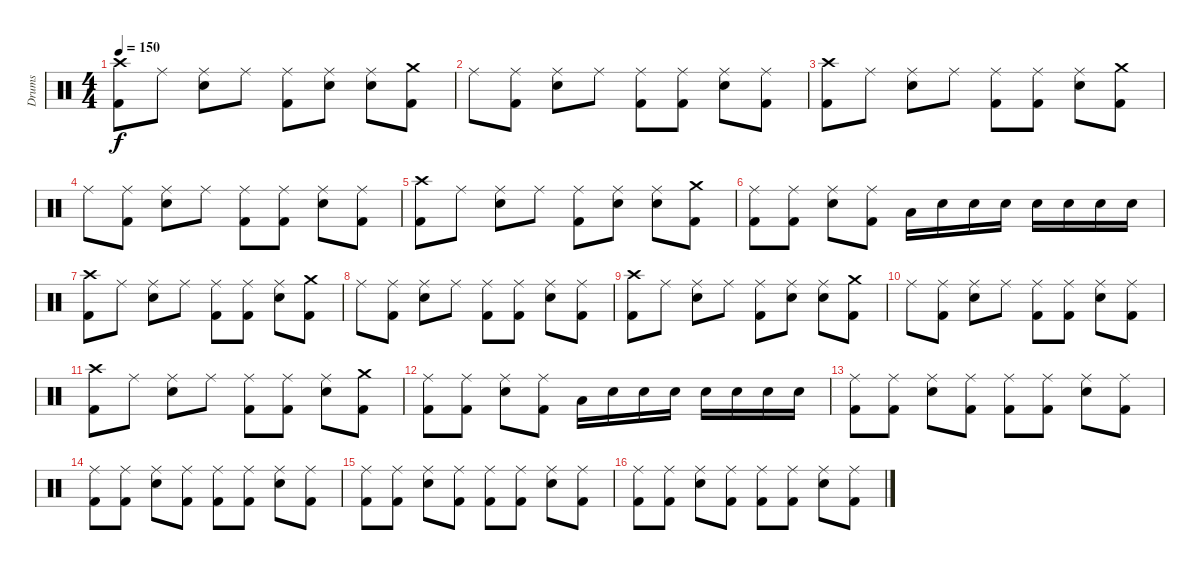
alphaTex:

\track ("Drums" "Drums") {instrument percussion}
\staff {score}
\articulation defaults
\ts (4 4)
\tempo 150
\clef neutral
\ks c
("Crash high (hit)" "Kick (hit) 2").8{dy f} "Ride (middle)".8 ("Ride (middle)" "Electric Snare (hit)").8 "Ride (middle)".8 ("Ride (middle)" "Kick (hit) 2").8 ("Ride (middle)" "Electric Snare (hit)").8 ("Ride (middle)" "Electric Snare (hit)").8 ("Crash medium (hit)" "Kick (hit) 2").8 |
"Ride (middle)".8 ("Ride (middle)" "Kick (hit) 2").8 ("Ride (middle)" "Electric Snare (hit)").8 "Ride (middle)".8 ("Ride (middle)" "Kick (hit) 2").8 ("Ride (middle)" "Kick (hit) 2").8 ("Ride (middle)" "Electric Snare (hit)").8 ("Ride (middle)" "Kick (hit) 2").8 |
("Crash high (hit)" "Kick (hit) 2").8 "Ride (middle)".8 ("Ride (middle)" "Electric Snare (hit)").8 "Ride (middle)".8 ("Ride (middle)" "Kick (hit) 2").8 ("Ride (middle)" "Kick (hit) 2").8 ("Ride (middle)" "Electric Snare (hit)").8 ("Crash medium (hit)" "Kick (hit) 2").8 |
"Ride (middle)".8 ("Ride (middle)" "Kick (hit) 2").8 ("Ride (middle)" "Electric Snare (hit)").8 "Ride (middle)".8 ("Ride (middle)" "Kick (hit) 2").8 ("Ride (middle)" "Kick (hit) 2").8 ("Ride (middle)" "Electric Snare (hit)").8 ("Ride (middle)" "Kick (hit) 2").8 |
("Crash high (hit)" "Kick (hit) 2").8 "Ride (middle)".8 ("Ride (middle)" "Electric Snare (hit)").8 "Ride (middle)".8 ("Ride (middle)" "Kick (hit) 2").8 ("Ride (middle)" "Electric Snare (hit)").8 ("Ride (middle)" "Electric Snare (hit)").8 ("Crash medium (hit)" "Kick (hit) 2").8 |
("Ride (middle)" "Kick (hit) 2").8 ("Ride (middle)" "Kick (hit) 2").8 ("Ride (middle)" "Electric Snare (hit)").8 ("Ride (middle)" "Kick (hit) 2").8 "Low Floor Tom (hit)".16 "Electric Snare (hit)".16 "Electric Snare (hit)".16 "Electric Snare (hit)".16 "Electric Snare (hit)".16 "Electric Snare (hit)".16 "Electric Snare (hit)".16 "Electric Snare (hit)".16 |
("Crash high (hit)" "Kick (hit) 2").8 "Ride (middle)".8 ("Ride (middle)" "Electric Snare (hit)").8 "Ride (middle)".8 ("Ride (middle)" "Kick (hit) 2").8 ("Ride (middle)" "Kick (hit) 2").8 ("Ride (middle)" "Electric Snare (hit)").8 ("Crash medium (hit)" "Kick (hit) 2").8 |
"Ride (middle)".8 ("Ride (middle)" "Kick (hit) 2").8 ("Ride (middle)" "Electric Snare (hit)").8 "Ride (middle)".8 ("Ride (middle)" "Kick (hit) 2").8 ("Ride (middle)" "Kick (hit) 2").8 ("Ride (middle)" "Electric Snare (hit)").8 ("Ride (middle)" "Kick (hit) 2").8 |
("Crash high (hit)" "Kick (hit) 2").8 "Ride (middle)".8 ("Ride (middle)" "Electric Snare (hit)").8 "Ride (middle)".8 ("Ride (middle)" "Kick (hit) 2").8 ("Ride (middle)" "Electric Snare (hit)").8 ("Ride (middle)" "Electric Snare (hit)").8 ("Crash medium (hit)" "Kick (hit) 2").8 |
"Ride (middle)".8 ("Ride (middle)" "Kick (hit) 2").8 ("Ride (middle)" "Electric Snare (hit)").8 "Ride (middle)".8 ("Ride (middle)" "Kick (hit) 2").8 ("Ride (middle)" "Kick (hit) 2").8 ("Ride (middle)" "Electric Snare (hit)").8 ("Ride (middle)" "Kick (hit) 2").8 |
("Crash high (hit)" "Kick (hit) 2").8 "Ride (middle)".8 ("Ride (middle)" "Electric Snare (hit)").8 "Ride (middle)".8 ("Ride (middle)" "Kick (hit) 2").8 ("Ride (middle)" "Kick (hit) 2").8 ("Ride (middle)" "Electric Snare (hit)").8 ("Crash medium (hit)" "Kick (hit) 2").8 |
("Ride (middle)" "Kick (hit) 2").8 ("Ride (middle)" "Kick (hit) 2").8 ("Ride (middle)" "Electric Snare (hit)").8 ("Ride (middle)" "Kick (hit) 2").8 "Low Floor Tom (hit)".16 "Electric Snare (hit)".16 "Electric Snare (hit)".16 "Electric Snare (hit)".16 "Electric Snare (hit)".16 "Electric Snare (hit)".16 "Electric Snare (hit)".16 "Electric Snare (hit)".16 |
("Ride (middle)" "Kick (hit) 2").8 ("Ride (middle)" "Kick (hit) 2").8 ("Ride (middle)" "Electric Snare (hit)").8 ("Ride (middle)" "Kick (hit) 2").8 ("Ride (middle)" "Kick (hit) 2").8 ("Ride (middle)" "Kick (hit) 2").8 ("Ride (middle)" "Electric Snare (hit)").8 ("Ride (middle)" "Kick (hit) 2").8 |
("Ride (middle)" "Kick (hit) 2").8 ("Ride (middle)" "Kick (hit) 2").8 ("Ride (middle)" "Electric Snare (hit)").8 ("Ride (middle)" "Kick (hit) 2").8 ("Ride (middle)" "Kick (hit) 2").8 ("Ride (middle)" "Kick (hit) 2").8 ("Ride (middle)" "Electric Snare (hit)").8 ("Ride (middle)" "Kick (hit) 2").8 |
("Ride (middle)" "Kick (hit) 2").8 ("Ride (middle)" "Kick (hit) 2").8 ("Ride (middle)" "Electric Snare (hit)").8 ("Ride (middle)" "Kick (hit) 2").8 ("Ride (middle)" "Kick (hit) 2").8 ("Ride (middle)" "Kick (hit) 2").8 ("Ride (middle)" "Electric Snare (hit)").8 ("Ride (middle)" "Kick (hit) 2").8 |
("Ride (middle)" "Kick (hit) 2").8 ("Ride (middle)" "Kick (hit) 2").8 ("Ride (middle)" "Electric Snare (hit)").8 ("Ride (middle)" "Kick (hit) 2").8 ("Ride (middle)" "Kick (hit) 2").8 ("Ride (middle)" "Kick (hit) 2").8 ("Ride (middle)" "Electric Snare (hit)").8 ("Ride (middle)" "Kick (hit) 2").8
